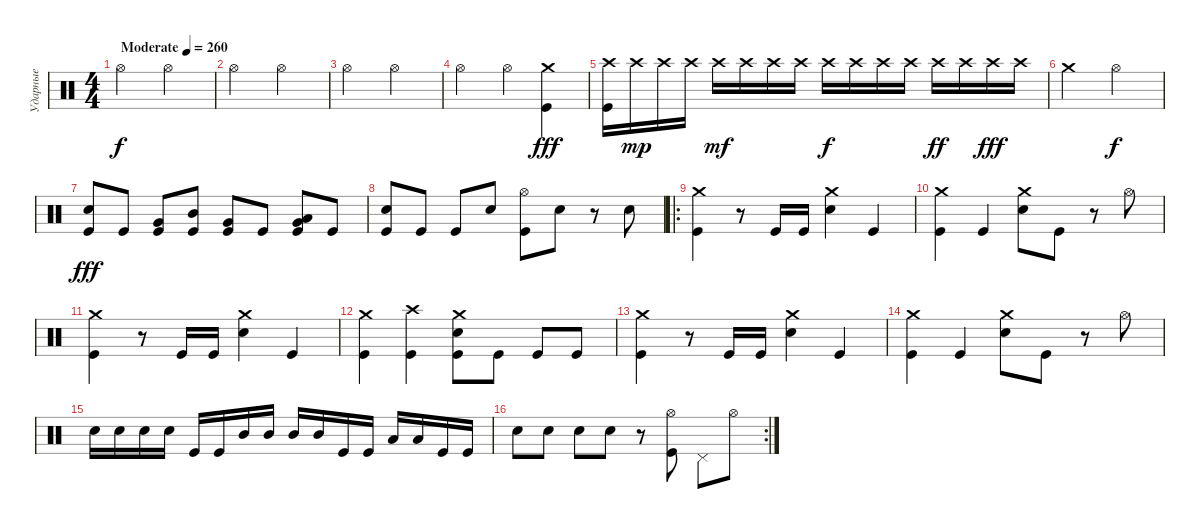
\track ("Ударные" "Ударные") {instrument percussion}
\staff {score}
\articulation defaults
\ts (4 4)
\tempo (260 "Moderate")
\clef neutral
\ks c "Hi-Hat (open)".2{dy f} "Hi-Hat (open)".2
|
"Hi-Hat (open)".2 "Hi-Hat (open)".2 |
"Hi-Hat (open)".2 "Hi-Hat (open)".2 |
"Hi-Hat (open)".2 "Hi-Hat (open)".4 ("Crash medium (hit)" "Kick (hit)").4{dy fff} |
("Kick (hit)" "Crash high (hit)").16 "Crash high (hit)".16{dy mp} "Crash high (hit)".16 "Crash high (hit)".16 "Crash high (hit)".16{dy mf} "Crash high (hit)".16 "Crash high (hit)".16 "Crash high (hit)".16 "Crash high (hit)".16{dy f} "Crash high (hit)".16 "Crash high (hit)".16 "Crash high (hit)".16 "Crash high (hit)".16{dy ff} "Crash high (hit)".16 "Crash high (hit)".16{dy fff} "Crash high (hit)".16 |
"Crash medium (hit)".2 "Hi-Hat (open)".2{dy f} |
("Electric Snare (hit)" "Kick (hit)").8{dy fff} "Kick (hit)".8 ("Kick (hit)" "Very Low Tom (hit)").8 ("Kick (hit)" "Mid Tom (hit)").8 ("Kick (hit)" "Very Low Tom (hit)").8 "Kick (hit)".8 ("Kick (hit)" "Very Low Tom (hit)" "Low Tom (hit)").8 "Kick (hit)".8 |
("Electric Snare (hit)" "Kick (hit)").8 "Kick (hit)".8 "Kick (hit)".8 "Electric Snare (hit)".8 ("Hi-Hat (open)" "Kick (hit)").8 "Electric Snare (hit)".8 r.8 "Electric Snare (hit)".8 |
\ro
("Crash medium (hit)" "Kick (hit)").4 r.8 "Kick (hit)".16 "Kick (hit)".16 ("Electric Snare (hit)" "Crash medium (hit)").4 "Kick (hit)".4 |
("Kick (hit)" "Crash medium (hit)").4 "Kick (hit)".4 ("Electric Snare (hit)" "Crash medium (hit)").8 "Kick (hit)".8 r.8 "Hi-Hat (open)".8 |
("Crash medium (hit)" "Kick (hit)").4 r.8 "Kick (hit)".16 "Kick (hit)".16 ("Electric Snare (hit)" "Crash medium (hit)").4 "Kick (hit)".4 |
("Kick (hit)" "Crash medium (hit)").4 ("Kick (hit)" "Crash high (hit)").4 ("Electric Snare (hit)" "Crash medium (hit)" "Kick (hit)").8 "Kick (hit)".8 "Kick (hit)".8 "Kick (hit)".8 |
("Crash medium (hit)" "Kick (hit)").4 r.8 "Kick (hit)".16 "Kick (hit)".16 ("Electric Snare (hit)" "Crash medium (hit)").4 "Kick (hit)".4 |
("Kick (hit)" "Crash medium (hit)").4 "Kick (hit)".4 ("Electric Snare (hit)" "Crash medium (hit)").8 "Kick (hit)".8 r.8 "Hi-Hat (open)".8 |
"Electric Snare (hit)".16 "Electric Snare (hit)".16 "Electric Snare (hit)".16 "Electric Snare (hit)".16 "Kick (hit)".16 "Kick (hit)".16 "Mid Tom (hit)".16 "Mid Tom (hit)".16 "Mid Tom (hit)".16 "Mid Tom (hit)".16 "Kick (hit)".16 "Kick (hit)".16 "Low Tom (hit)".16 "Low Tom (hit)".16 "Kick (hit)".16 "Kick (hit)".16 |
\rc 2 "Electric Snare (hit)".8 "Electric Snare (hit)".8 "Electric Snare (hit)".8 "Electric Snare (hit)".8
r.8 ("Hi-Hat (open)" "Kick (hit)").8 "Pedal Hi-Hat (hit)".8 "Hi-Hat (open)".8
